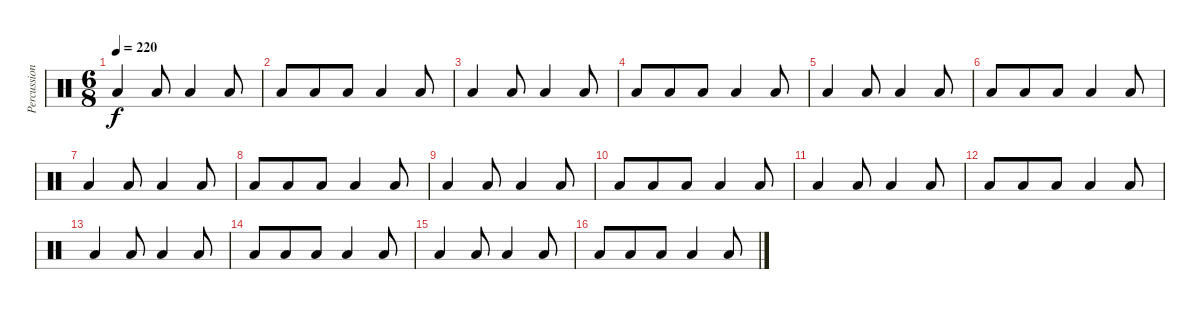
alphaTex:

\track ("Percussion" "Percussion") {instrument percussion}
\staff {score}
\articulation defaults
\ts (6 8)
\tempo 220
\clef neutral
\ks c "Low Floor Tom (hit)".4{dy f} "Low Floor Tom (hit)".8 "Low Tom (hit)".4 "Low Tom (hit)".8
|
"Low Floor Tom (hit)".8 "Low Floor Tom (hit)".8 "Low Floor Tom (hit)".8 "Low Tom (hit)".4 "Low Tom (hit)".8 |
"Low Floor Tom (hit)".4 "Low Floor Tom (hit)".8 "Low Tom (hit)".4 "Low Tom (hit)".8 |
"Low Floor Tom (hit)".8 "Low Floor Tom (hit)".8 "Low Floor Tom (hit)".8 "Low Tom (hit)".4 "Low Tom (hit)".8 |
"Low Floor Tom (hit)".4 "Low Floor Tom (hit)".8 "Low Tom (hit)".4 "Low Tom (hit)".8 |
"Low Floor Tom (hit)".8 "Low Floor Tom (hit)".8 "Low Floor Tom (hit)".8 "Low Tom (hit)".4 "Low Tom (hit)".8 |
"Low Floor Tom (hit)".4 "Low Floor Tom (hit)".8 "Low Tom (hit)".4 "Low Tom (hit)".8 |
"Low Floor Tom (hit)".8 "Low Floor Tom (hit)".8 "Low Floor Tom (hit)".8 "Low Tom (hit)".4 "Low Tom (hit)".8 |
"Low Floor Tom (hit)".4 "Low Floor Tom (hit)".8 "Low Tom (hit)".4 "Low Tom (hit)".8 |
"Low Floor Tom (hit)".8 "Low Floor Tom (hit)".8 "Low Floor Tom (hit)".8 "Low Tom (hit)".4 "Low Tom (hit)".8 |
"Low Floor Tom (hit)".4 "Low Floor Tom (hit)".8 "Low Tom (hit)".4 "Low Tom (hit)".8 |
"Low Floor Tom (hit)".8 "Low Floor Tom (hit)".8 "Low Floor Tom (hit)".8 "Low Tom (hit)".4 "Low Tom (hit)".8 |
"Low Floor Tom (hit)".4 "Low Floor Tom (hit)".8 "Low Tom (hit)".4 "Low Tom (hit)".8 |
"Low Floor Tom (hit)".8 "Low Floor Tom (hit)".8 "Low Floor Tom (hit)".8 "Low Tom (hit)".4 "Low Tom (hit)".8 |
"Low Floor Tom (hit)".4 "Low Floor Tom (hit)".8 "Low Tom (hit)".4 "Low Tom (hit)".8 |
"Low Floor Tom (hit)".8 "Low Floor Tom (hit)".8 "Low Floor Tom (hit)".8 "Low Tom (hit)".4 "Low Tom (hit)".8
